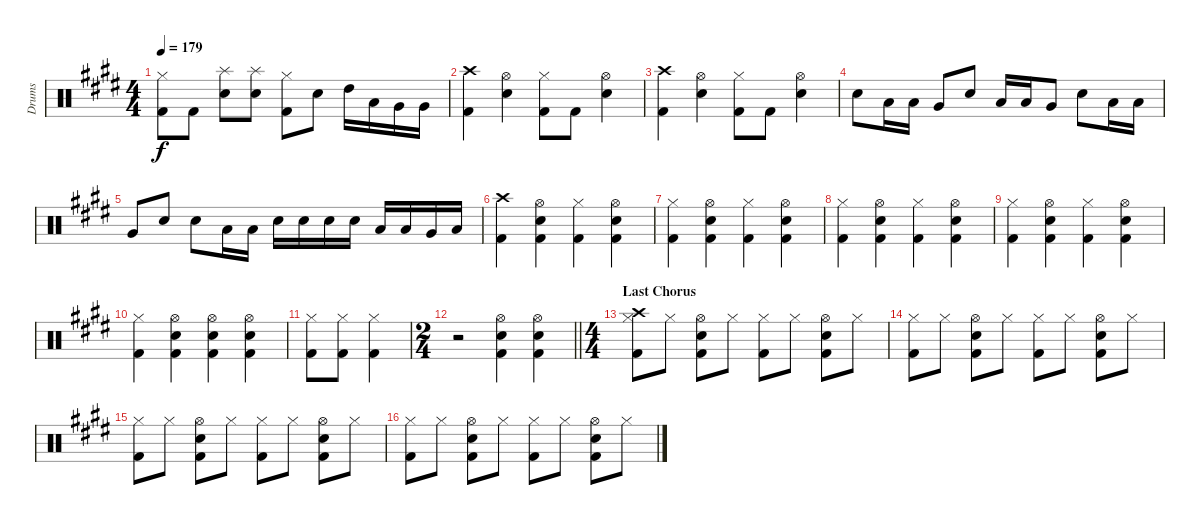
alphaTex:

\track ("Drums" "Drums") {instrument percussion}
\staff {score}
\articulation defaults
\ts (4 4)
\tempo 179
\clef neutral
\ks e
("Hi-Hat (closed)" "Kick (hit) 2").8{dy f} "Kick (hit) 2".8 ("Splash (hit)" "Snare (hit) 2").8 ("Splash (hit)" "Snare (hit) 2").8 ("Hi-Hat (closed)" "Kick (hit) 2").8 "Snare (hit) 2".8 "High Tom (hit)".16 "Low Tom (hit)".16 "Very Low Tom (hit)".16 "Very Low Tom (hit)".16 |
("Crash high (hit)" "Kick (hit) 2").4 ("Hi-Hat (open)" "Snare (hit) 2").4 ("Hi-Hat (closed)" "Kick (hit) 2").8 "Kick (hit) 2".8 ("Hi-Hat (open)" "Snare (hit) 2").4 |
("Crash high (hit)" "Kick (hit) 2").4 ("Hi-Hat (open)" "Snare (hit) 2").4 ("Hi-Hat (closed)" "Kick (hit) 2").8 "Kick (hit) 2".8 ("Hi-Hat (open)" "Snare (hit) 2").4 |
"Snare (hit) 2".8 "Low Tom (hit)".16 "Low Tom (hit)".16 "Very Low Tom (hit)".8 "Snare (hit) 2".8 "Low Tom (hit)".16 "Low Tom (hit)".16 "Very Low Tom (hit)".8 "Snare (hit) 2".8 "Low Tom (hit)".16 "Low Tom (hit)".16 |
"Very Low Tom (hit)".8 "Snare (hit) 2".8 "Snare (hit) 2".8 "Low Tom (hit)".16 "Low Tom (hit)".16 "Snare (hit) 2".16 "Snare (hit) 2".16 "Snare (hit) 2".16 "Snare (hit) 2".16 "Low Tom (hit)".16 "Low Tom (hit)".16 "Very Low Tom (hit)".16 "Low Floor Tom (hit)".16 |
("Crash high (hit)" "Kick (hit) 2").4 ("Hi-Hat (open)" "Snare (hit) 2" "Kick (hit) 2").4 ("Hi-Hat (closed)" "Kick (hit) 2").4 ("Hi-Hat (open)" "Snare (hit) 2" "Kick (hit) 2").4 |
("Hi-Hat (closed)" "Kick (hit) 2").4 ("Hi-Hat (open)" "Snare (hit) 2" "Kick (hit) 2").4 ("Hi-Hat (closed)" "Kick (hit) 2").4 ("Hi-Hat (open)" "Snare (hit) 2" "Kick (hit) 2").4 |
("Hi-Hat (closed)" "Kick (hit) 2").4 ("Hi-Hat (open)" "Snare (hit) 2" "Kick (hit) 2").4 ("Hi-Hat (closed)" "Kick (hit) 2").4 ("Hi-Hat (open)" "Snare (hit) 2" "Kick (hit) 2").4 |
("Hi-Hat (closed)" "Kick (hit) 2").4 ("Hi-Hat (open)" "Snare (hit) 2" "Kick (hit) 2").4 ("Hi-Hat (closed)" "Kick (hit) 2").4 ("Hi-Hat (open)" "Snare (hit) 2" "Kick (hit) 2").4 |
("Hi-Hat (closed)" "Kick (hit) 2").4 ("Hi-Hat (open)" "Snare (hit) 2" "Kick (hit) 2").4 ("Hi-Hat (open)" "Snare (hit) 2" "Kick (hit) 2").4 ("Hi-Hat (open)" "Snare (hit) 2" "Kick (hit) 2").4 |
("Hi-Hat (closed)" "Kick (hit) 2").8 ("Hi-Hat (closed)" "Kick (hit) 2").8 ("Hi-Hat (closed)" "Kick (hit) 2").4 |
\ts (2 4)
\barLineRight lightlight
r.2 ("Hi-Hat (open)" "Snare (hit) 2" "Kick (hit) 2").4 ("Hi-Hat (open)" "Snare (hit) 2" "Kick (hit) 2").4 |
\ts (4 4)
\section ("" "Last Chorus")
("Hi-Hat (closed)" "Crash high (hit)" "Kick (hit) 2").8 "Hi-Hat (closed)".8 ("Hi-Hat (open)" "Snare (hit) 2" "Kick (hit) 2").8 "Hi-Hat (closed)".8 ("Hi-Hat (closed)" "Kick (hit) 2").8 "Hi-Hat (closed)".8 ("Hi-Hat (open)" "Snare (hit) 2" "Kick (hit) 2").8 "Hi-Hat (closed)".8 |
("Hi-Hat (closed)" "Kick (hit) 2").8 "Hi-Hat (closed)".8 ("Hi-Hat (open)" "Snare (hit) 2" "Kick (hit) 2").8 "Hi-Hat (closed)".8 ("Hi-Hat (closed)" "Kick (hit) 2").8 "Hi-Hat (closed)".8 ("Hi-Hat (open)" "Snare (hit) 2" "Kick (hit) 2").8 "Hi-Hat (closed)".8 |
("Hi-Hat (closed)" "Kick (hit) 2").8 "Hi-Hat (closed)".8 ("Hi-Hat (open)" "Snare (hit) 2" "Kick (hit) 2").8 "Hi-Hat (closed)".8 ("Hi-Hat (closed)" "Kick (hit) 2").8 "Hi-Hat (closed)".8 ("Hi-Hat (open)" "Snare (hit) 2" "Kick (hit) 2").8 "Hi-Hat (closed)".8 |
("Hi-Hat (closed)" "Kick (hit) 2").8 "Hi-Hat (closed)".8 ("Hi-Hat (open)" "Snare (hit) 2" "Kick (hit) 2").8 "Hi-Hat (closed)".8 ("Hi-Hat (closed)" "Kick (hit) 2").8 "Hi-Hat (closed)".8 ("Hi-Hat (open)" "Snare (hit) 2" "Kick (hit) 2").8 "Hi-Hat (closed)".8
